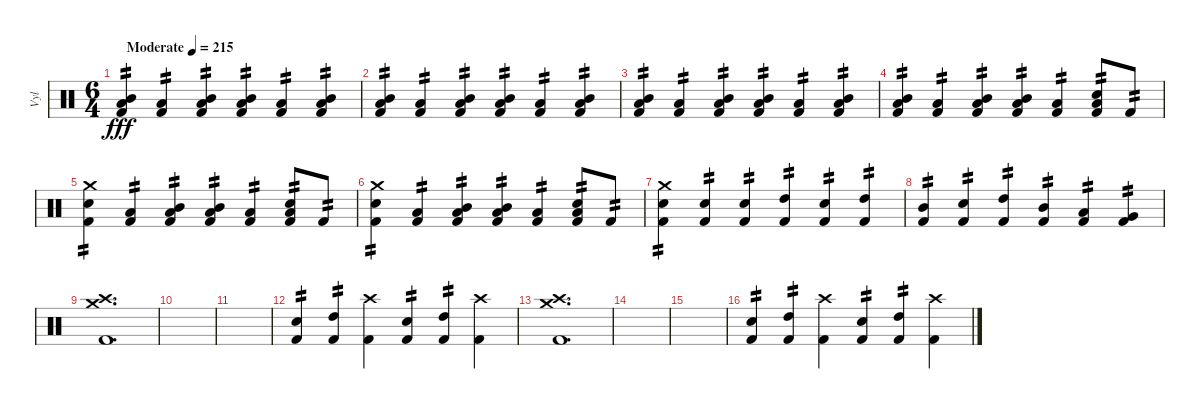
\track ("Vyl" "Vyl") {instrument percussion}
\staff {score}
\articulation defaults
\ts (6 4)
\tempo (215 "Moderate")
\clef neutral
\ks c
("Mid Tom (hit)" "Low Floor Tom (hit)" "Kick (hit) 2").4{tp 2 dy fff} ("Low Floor Tom (hit)" "Kick (hit) 2").4{tp 2} ("Mid Tom (hit)" "Low Floor Tom (hit)" "Kick (hit) 2").4{tp 2} ("Mid Tom (hit)" "Low Floor Tom (hit)" "Kick (hit) 2").4{tp 2} ("Low Floor Tom (hit)" "Kick (hit) 2").4{tp 2} ("Mid Tom (hit)" "Low Floor Tom (hit)" "Kick (hit) 2").4{tp 2} |
("Mid Tom (hit)" "Low Floor Tom (hit)" "Kick (hit) 2").4{tp 2} ("Low Floor Tom (hit)" "Kick (hit) 2").4{tp 2} ("Mid Tom (hit)" "Low Floor Tom (hit)" "Kick (hit) 2").4{tp 2} ("Mid Tom (hit)" "Low Floor Tom (hit)" "Kick (hit) 2").4{tp 2} ("Low Floor Tom (hit)" "Kick (hit) 2").4{tp 2} ("Mid Tom (hit)" "Low Floor Tom (hit)" "Kick (hit) 2").4{tp 2} |
("Mid Tom (hit)" "Low Floor Tom (hit)" "Kick (hit) 2").4{tp 2} ("Low Floor Tom (hit)" "Kick (hit) 2").4{tp 2} ("Mid Tom (hit)" "Low Floor Tom (hit)" "Kick (hit) 2").4{tp 2} ("Mid Tom (hit)" "Low Floor Tom (hit)" "Kick (hit) 2").4{tp 2} ("Low Floor Tom (hit)" "Kick (hit) 2").4{tp 2} ("Mid Tom (hit)" "Low Floor Tom (hit)" "Kick (hit) 2").4{tp 2} |
("Mid Tom (hit)" "Low Floor Tom (hit)" "Kick (hit) 2").4{tp 2} ("Low Floor Tom (hit)" "Kick (hit) 2").4{tp 2} ("Mid Tom (hit)" "Low Floor Tom (hit)" "Kick (hit) 2").4{tp 2} ("Mid Tom (hit)" "Low Floor Tom (hit)" "Kick (hit) 2").4{tp 2} ("Low Floor Tom (hit)" "Kick (hit) 2").4{tp 2} ("Snare (hit) 2" "Low Floor Tom (hit)" "Kick (hit) 2").8{tp 2} "Kick (hit) 2".8{tp 2} |
("Crash medium (hit)" "Snare (hit) 2" "Kick (hit) 2").4{tp 2} ("Low Floor Tom (hit)" "Kick (hit) 2").4{tp 2} ("Mid Tom (hit)" "Low Floor Tom (hit)" "Kick (hit) 2").4{tp 2} ("Mid Tom (hit)" "Low Floor Tom (hit)" "Kick (hit) 2").4{tp 2} ("Low Floor Tom (hit)" "Kick (hit) 2").4{tp 2} ("Snare (hit) 2" "Low Floor Tom (hit)" "Kick (hit) 2").8{tp 2} "Kick (hit) 2".8{tp 2} |
("Crash medium (hit)" "Snare (hit) 2" "Kick (hit) 2").4{tp 2} ("Low Floor Tom (hit)" "Kick (hit) 2").4{tp 2} ("Mid Tom (hit)" "Low Floor Tom (hit)" "Kick (hit) 2").4{tp 2} ("Mid Tom (hit)" "Low Floor Tom (hit)" "Kick (hit) 2").4{tp 2} ("Low Floor Tom (hit)" "Kick (hit) 2").4{tp 2} ("Snare (hit) 2" "Low Floor Tom (hit)" "Kick (hit) 2").8{tp 2} "Kick (hit) 2".8{tp 2} |
("Crash medium (hit)" "Snare (hit) 2" "Kick (hit) 2").4{tp 2} ("Snare (hit) 2" "Kick (hit) 2").4{tp 2} ("Snare (hit) 2" "Kick (hit) 2").4{tp 2} ("High Tom (hit)" "Kick (hit) 2").4{tp 2} ("Snare (hit) 2" "Kick (hit) 2").4{tp 2} ("High Tom (hit)" "Kick (hit) 2").4{tp 2} |
("Mid Tom (hit)" "Kick (hit) 2").4{tp 2} ("Snare (hit) 2" "Kick (hit) 2").4{tp 2} ("High Tom (hit)" "Kick (hit) 2").4{tp 2} ("Mid Tom (hit)" "Kick (hit) 2").4{tp 2} ("Low Tom (hit)" "Kick (hit) 2").4{tp 2} ("Very Low Tom (hit)" "Kick (hit) 2").4{tp 2} |
("Crash medium (hit)" "Crash high (hit)" "Kick (hit) 2").1{d} |
|
|
("Snare (hit) 2" "Kick (hit) 2").4{tp 2} ("High Tom (hit)" "Kick (hit) 2").4{tp 2} ("Crash high (hit)" "Kick (hit) 2").4 ("Snare (hit) 2" "Kick (hit) 2").4{tp 2} ("High Tom (hit)" "Kick (hit) 2").4{tp 2} ("Crash high (hit)" "Kick (hit) 2").4 |
("Crash medium (hit)" "Crash high (hit)" "Kick (hit) 2").1{d} |
|
|
("Snare (hit) 2" "Kick (hit) 2").4{tp 2} ("High Tom (hit)" "Kick (hit) 2").4{tp 2} ("Crash high (hit)" "Kick (hit) 2").4 ("Snare (hit) 2" "Kick (hit) 2").4{tp 2} ("High Tom (hit)" "Kick (hit) 2").4{tp 2} ("Crash high (hit)" "Kick (hit) 2").4
